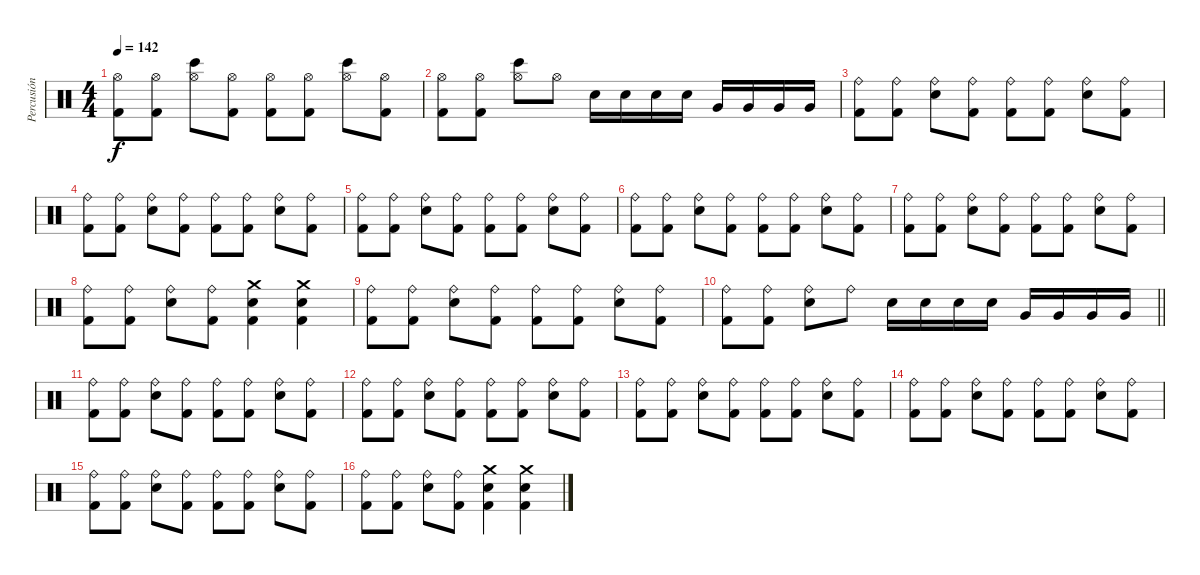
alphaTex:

\track ("Percusión" "Percusión") {instrument percussion}
\staff {score}
\articulation defaults
\ts (4 4)
\tempo 142
\clef neutral
\ks c
("Hi-Hat (open)" "Kick (hit) 2").8{dy f} ("Hi-Hat (open)" "Kick (hit) 2").8 ("Hi-Hat (open)" "Bongo High (hit)").8 ("Hi-Hat (open)" "Kick (hit) 2").8 ("Hi-Hat (open)" "Kick (hit) 2").8 ("Hi-Hat (open)" "Kick (hit) 2").8 ("Hi-Hat (open)" "Bongo High (hit)").8 ("Hi-Hat (open)" "Kick (hit) 2").8 |
("Hi-Hat (open)" "Kick (hit) 2").8 ("Hi-Hat (open)" "Kick (hit) 2").8 ("Hi-Hat (open)" "Bongo High (hit)").8 "Hi-Hat (open)".8 "Electric Snare (hit)".16 "Electric Snare (hit)".16 "Electric Snare (hit)".16 "Electric Snare (hit)".16 "Very Low Tom (hit)".16 "Very Low Tom (hit)".16 "Very Low Tom (hit)".16 "Very Low Tom (hit)".16 |
("Ride (bell)" "Kick (hit) 2").8 ("Ride (bell)" "Kick (hit) 2").8 ("Ride (bell)" "Electric Snare (hit)").8 ("Ride (bell)" "Kick (hit) 2").8 ("Ride (bell)" "Kick (hit) 2").8 ("Ride (bell)" "Kick (hit) 2").8 ("Ride (bell)" "Electric Snare (hit)").8 ("Ride (bell)" "Kick (hit) 2").8 |
("Ride (bell)" "Kick (hit) 2").8 ("Ride (bell)" "Kick (hit) 2").8 ("Ride (bell)" "Electric Snare (hit)").8 ("Ride (bell)" "Kick (hit) 2").8 ("Ride (bell)" "Kick (hit) 2").8 ("Ride (bell)" "Kick (hit) 2").8 ("Ride (bell)" "Electric Snare (hit)").8 ("Ride (bell)" "Kick (hit) 2").8 |
("Ride (bell)" "Kick (hit) 2").8 ("Ride (bell)" "Kick (hit) 2").8 ("Ride (bell)" "Electric Snare (hit)").8 ("Ride (bell)" "Kick (hit) 2").8 ("Ride (bell)" "Kick (hit) 2").8 ("Ride (bell)" "Kick (hit) 2").8 ("Ride (bell)" "Electric Snare (hit)").8 ("Ride (bell)" "Kick (hit) 2").8 |
("Ride (bell)" "Kick (hit) 2").8 ("Ride (bell)" "Kick (hit) 2").8 ("Ride (bell)" "Electric Snare (hit)").8 ("Ride (bell)" "Kick (hit) 2").8 ("Ride (bell)" "Kick (hit) 2").8 ("Ride (bell)" "Kick (hit) 2").8 ("Ride (bell)" "Electric Snare (hit)").8 ("Ride (bell)" "Kick (hit) 2").8 |
("Ride (bell)" "Kick (hit) 2").8 ("Ride (bell)" "Kick (hit) 2").8 ("Ride (bell)" "Electric Snare (hit)").8 ("Ride (bell)" "Kick (hit) 2").8 ("Ride (bell)" "Kick (hit) 2").8 ("Ride (bell)" "Kick (hit) 2").8 ("Ride (bell)" "Electric Snare (hit)").8 ("Ride (bell)" "Kick (hit) 2").8 |
("Ride (bell)" "Kick (hit) 2").8 ("Ride (bell)" "Kick (hit) 2").8 ("Ride (bell)" "Electric Snare (hit)").8 ("Ride (bell)" "Kick (hit) 2").8 ("Crash medium (hit)" "Electric Snare (hit)" "Kick (hit) 2").4 ("Crash medium (hit)" "Electric Snare (hit)" "Kick (hit) 2").4 |
("Ride (bell)" "Kick (hit) 2").8 ("Ride (bell)" "Kick (hit) 2").8 ("Ride (bell)" "Electric Snare (hit)").8 ("Ride (bell)" "Kick (hit) 2").8 ("Ride (bell)" "Kick (hit) 2").8 ("Ride (bell)" "Kick (hit) 2").8 ("Ride (bell)" "Electric Snare (hit)").8 ("Ride (bell)" "Kick (hit) 2").8 |
\barLineRight lightlight
("Ride (bell)" "Kick (hit) 2").8 ("Ride (bell)" "Kick (hit) 2").8 ("Ride (bell)" "Electric Snare (hit)").8 "Ride (bell)".8 "Electric Snare (hit)".16 "Electric Snare (hit)".16 "Electric Snare (hit)".16 "Electric Snare (hit)".16 "Very Low Tom (hit)".16 "Very Low Tom (hit)".16 "Very Low Tom (hit)".16 "Very Low Tom (hit)".16 |
("Ride (bell)" "Kick (hit) 2").8 ("Ride (bell)" "Kick (hit) 2").8 ("Ride (bell)" "Electric Snare (hit)").8 ("Ride (bell)" "Kick (hit) 2").8 ("Ride (bell)" "Kick (hit) 2").8 ("Ride (bell)" "Kick (hit) 2").8 ("Ride (bell)" "Electric Snare (hit)").8 ("Ride (bell)" "Kick (hit) 2").8 |
("Ride (bell)" "Kick (hit) 2").8 ("Ride (bell)" "Kick (hit) 2").8 ("Ride (bell)" "Electric Snare (hit)").8 ("Ride (bell)" "Kick (hit) 2").8 ("Ride (bell)" "Kick (hit) 2").8 ("Ride (bell)" "Kick (hit) 2").8 ("Ride (bell)" "Electric Snare (hit)").8 ("Ride (bell)" "Kick (hit) 2").8 |
("Ride (bell)" "Kick (hit) 2").8 ("Ride (bell)" "Kick (hit) 2").8 ("Ride (bell)" "Electric Snare (hit)").8 ("Ride (bell)" "Kick (hit) 2").8 ("Ride (bell)" "Kick (hit) 2").8 ("Ride (bell)" "Kick (hit) 2").8 ("Ride (bell)" "Electric Snare (hit)").8 ("Ride (bell)" "Kick (hit) 2").8 |
("Ride (bell)" "Kick (hit) 2").8 ("Ride (bell)" "Kick (hit) 2").8 ("Ride (bell)" "Electric Snare (hit)").8 ("Ride (bell)" "Kick (hit) 2").8 ("Ride (bell)" "Kick (hit) 2").8 ("Ride (bell)" "Kick (hit) 2").8 ("Ride (bell)" "Electric Snare (hit)").8 ("Ride (bell)" "Kick (hit) 2").8 |
("Ride (bell)" "Kick (hit) 2").8 ("Ride (bell)" "Kick (hit) 2").8 ("Ride (bell)" "Electric Snare (hit)").8 ("Ride (bell)" "Kick (hit) 2").8 ("Ride (bell)" "Kick (hit) 2").8 ("Ride (bell)" "Kick (hit) 2").8 ("Ride (bell)" "Electric Snare (hit)").8 ("Ride (bell)" "Kick (hit) 2").8 |
("Ride (bell)" "Kick (hit) 2").8 ("Ride (bell)" "Kick (hit) 2").8 ("Ride (bell)" "Electric Snare (hit)").8 ("Ride (bell)" "Kick (hit) 2").8 ("Crash medium (hit)" "Electric Snare (hit)" "Kick (hit) 2").4 ("Crash medium (hit)" "Electric Snare (hit)" "Kick (hit) 2").4
